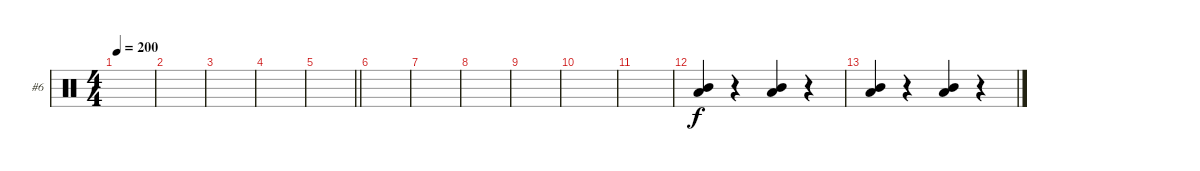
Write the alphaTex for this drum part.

\bracketExtendMode groupsimilarinstruments
\firstSystemTrackNameOrientation horizontal
\otherSystemsTrackNameOrientation horizontal
\track ("Shawn \"Clown\" Crahan" "#6") {instrument percussion}
\staff {score}
\articulation defaults
\ts (4 4)
\tempo 200
\clef neutral
\ks c
|
|
|
|
\barLineRight lightlight
|
|
|
|
|
|
|
("Low Tom (hit)" "Mid Tom (hit)").4 r.4 ("Low Tom (hit)" "Mid Tom (hit)").4 r.4 |
("Low Tom (hit)" "Mid Tom (hit)").4 r.4 ("Low Tom (hit)" "Mid Tom (hit)").4 r.4
